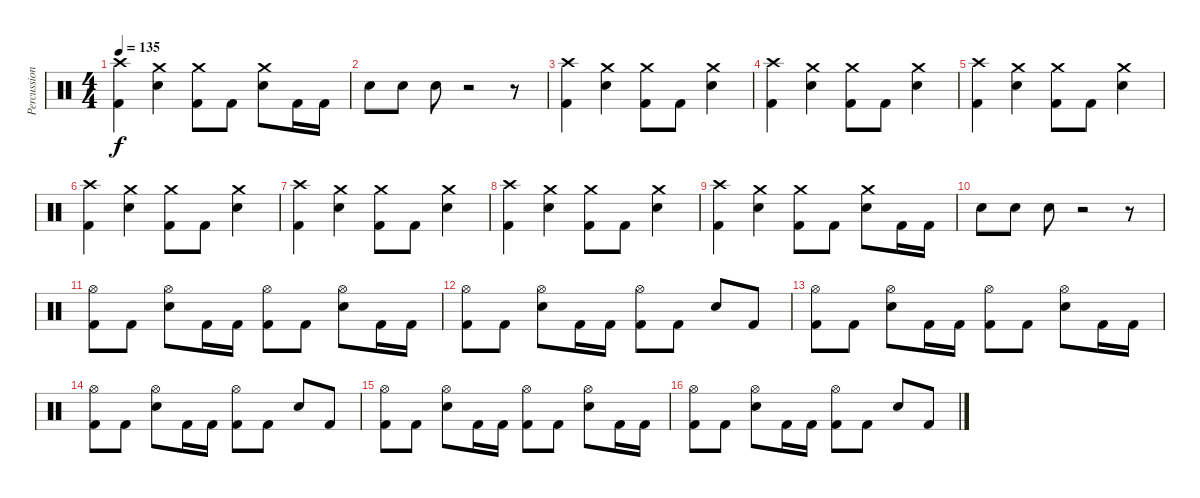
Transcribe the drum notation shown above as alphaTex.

\track ("Percussion" "Percussion") {instrument percussion}
\staff {score}
\articulation defaults
\ts (4 4)
\tempo 135
\clef neutral
\ks c
("Kick (hit) 2" "Crash high (hit)").4{dy f} ("Snare (hit) 2" "Crash medium (hit)").4 ("Kick (hit) 2" "Crash medium (hit)").8 "Kick (hit) 2".8 ("Snare (hit) 2" "Crash medium (hit)").8 "Kick (hit) 2".16 "Kick (hit) 2".16 |
"Snare (hit) 2".8 "Snare (hit) 2".8 "Snare (hit) 2".8 r.2 r.8 |
("Kick (hit) 2" "Crash high (hit)").4 ("Snare (hit) 2" "Crash medium (hit)").4 ("Kick (hit) 2" "Crash medium (hit)").8 "Kick (hit) 2".8 ("Snare (hit) 2" "Crash medium (hit)").4 |
("Kick (hit) 2" "Crash high (hit)").4 ("Snare (hit) 2" "Crash medium (hit)").4 ("Kick (hit) 2" "Crash medium (hit)").8 "Kick (hit) 2".8 ("Snare (hit) 2" "Crash medium (hit)").4 |
("Kick (hit) 2" "Crash high (hit)").4 ("Snare (hit) 2" "Crash medium (hit)").4 ("Kick (hit) 2" "Crash medium (hit)").8 "Kick (hit) 2".8 ("Snare (hit) 2" "Crash medium (hit)").4 |
("Kick (hit) 2" "Crash high (hit)").4 ("Snare (hit) 2" "Crash medium (hit)").4 ("Kick (hit) 2" "Crash medium (hit)").8 "Kick (hit) 2".8 ("Snare (hit) 2" "Crash medium (hit)").4 |
("Kick (hit) 2" "Crash high (hit)").4 ("Snare (hit) 2" "Crash medium (hit)").4 ("Kick (hit) 2" "Crash medium (hit)").8 "Kick (hit) 2".8 ("Snare (hit) 2" "Crash medium (hit)").4 |
("Kick (hit) 2" "Crash high (hit)").4 ("Snare (hit) 2" "Crash medium (hit)").4 ("Kick (hit) 2" "Crash medium (hit)").8 "Kick (hit) 2".8 ("Snare (hit) 2" "Crash medium (hit)").4 |
("Kick (hit) 2" "Crash high (hit)").4 ("Snare (hit) 2" "Crash medium (hit)").4 ("Kick (hit) 2" "Crash medium (hit)").8 "Kick (hit) 2".8 ("Snare (hit) 2" "Crash medium (hit)").8 "Kick (hit) 2".16 "Kick (hit) 2".16 |
"Snare (hit) 2".8 "Snare (hit) 2".8 "Snare (hit) 2".8 r.2 r.8 |
("Kick (hit) 2" "Hi-Hat (open)").8 "Kick (hit) 2".8 ("Snare (hit) 2" "Hi-Hat (open)").8 "Kick (hit) 2".16 "Kick (hit) 2".16 ("Kick (hit) 2" "Hi-Hat (open)").8 "Kick (hit) 2".8 ("Snare (hit) 2" "Hi-Hat (open)").8 "Kick (hit) 2".16 "Kick (hit) 2".16 |
("Kick (hit) 2" "Hi-Hat (open)").8 "Kick (hit) 2".8 ("Snare (hit) 2" "Hi-Hat (open)").8 "Kick (hit) 2".16 "Kick (hit) 2".16 ("Kick (hit) 2" "Hi-Hat (open)").8 "Kick (hit) 2".8 "Snare (hit) 2".8 "Kick (hit) 2".8 |
("Kick (hit) 2" "Hi-Hat (open)").8 "Kick (hit) 2".8 ("Snare (hit) 2" "Hi-Hat (open)").8 "Kick (hit) 2".16 "Kick (hit) 2".16 ("Kick (hit) 2" "Hi-Hat (open)").8 "Kick (hit) 2".8 ("Snare (hit) 2" "Hi-Hat (open)").8 "Kick (hit) 2".16 "Kick (hit) 2".16 |
("Kick (hit) 2" "Hi-Hat (open)").8 "Kick (hit) 2".8 ("Snare (hit) 2" "Hi-Hat (open)").8 "Kick (hit) 2".16 "Kick (hit) 2".16 ("Kick (hit) 2" "Hi-Hat (open)").8 "Kick (hit) 2".8 "Snare (hit) 2".8 "Kick (hit) 2".8 |
("Kick (hit) 2" "Hi-Hat (open)").8 "Kick (hit) 2".8 ("Snare (hit) 2" "Hi-Hat (open)").8 "Kick (hit) 2".16 "Kick (hit) 2".16 ("Kick (hit) 2" "Hi-Hat (open)").8 "Kick (hit) 2".8 ("Snare (hit) 2" "Hi-Hat (open)").8 "Kick (hit) 2".16 "Kick (hit) 2".16 |
("Kick (hit) 2" "Hi-Hat (open)").8 "Kick (hit) 2".8 ("Snare (hit) 2" "Hi-Hat (open)").8 "Kick (hit) 2".16 "Kick (hit) 2".16 ("Kick (hit) 2" "Hi-Hat (open)").8 "Kick (hit) 2".8 "Snare (hit) 2".8 "Kick (hit) 2".8
